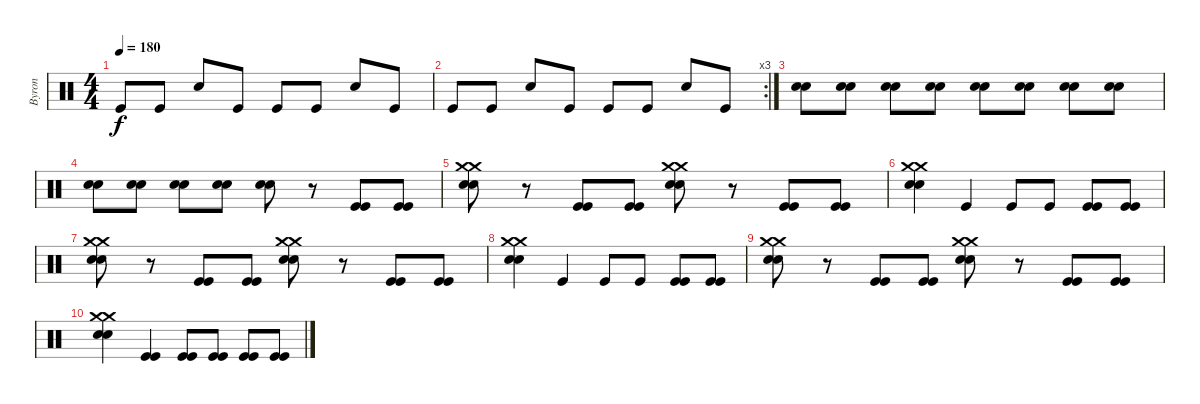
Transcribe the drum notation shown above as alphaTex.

\track ("Byron" "Byron") {instrument percussion}
\staff {score}
\articulation defaults
\ts (4 4)
\tempo 180
\clef neutral
\ks c "Kick (hit)".8{dy f} "Kick (hit)".8 "Snare (hit) 2".8 "Kick (hit)".8 "Kick (hit)".8 "Kick (hit)".8 "Snare (hit) 2".8 "Kick (hit)".8
|
\rc 3 "Kick (hit)".8 "Kick (hit)".8 "Snare (hit) 2".8 "Kick (hit)".8 "Kick (hit)".8 "Kick (hit)".8 "Snare (hit) 2".8 "Kick (hit)".8
|
("Snare (hit) 2" "Snare (hit) 2").8 ("Snare (hit) 2" "Snare (hit) 2").8 ("Snare (hit) 2" "Snare (hit) 2").8 ("Snare (hit) 2" "Snare (hit) 2").8 ("Snare (hit) 2" "Snare (hit) 2").8 ("Snare (hit) 2" "Snare (hit) 2").8 ("Snare (hit) 2" "Snare (hit) 2").8 ("Snare (hit) 2" "Snare (hit) 2").8 |
("Snare (hit) 2" "Snare (hit) 2").8 ("Snare (hit) 2" "Snare (hit) 2").8 ("Snare (hit) 2" "Snare (hit) 2").8 ("Snare (hit) 2" "Snare (hit) 2").8 ("Snare (hit) 2" "Snare (hit) 2").8 r.8 ("Kick (hit)" "Kick (hit)").8 ("Kick (hit)" "Kick (hit)").8 |
("Snare (hit) 2" "Crash medium (hit)" "Snare (hit) 2" "Crash medium (hit)").8 r.8 ("Kick (hit)" "Kick (hit)").8 ("Kick (hit)" "Kick (hit)").8 ("Snare (hit) 2" "Snare (hit) 2" "Crash medium (hit)" "Crash medium (hit)").8 r.8 ("Kick (hit)" "Kick (hit)").8 ("Kick (hit)" "Kick (hit)").8 |
("Snare (hit) 2" "Snare (hit) 2" "Crash medium (hit)" "Crash medium (hit)").4 "Kick (hit)".4 "Kick (hit)".8 "Kick (hit)".8 ("Kick (hit)" "Kick (hit)").8 ("Kick (hit)" "Kick (hit)").8 |
("Snare (hit) 2" "Snare (hit) 2" "Crash medium (hit)" "Crash medium (hit)").8 r.8 ("Kick (hit)" "Kick (hit)").8 ("Kick (hit)" "Kick (hit)").8 ("Snare (hit) 2" "Snare (hit) 2" "Crash medium (hit)" "Crash medium (hit)").8 r.8 ("Kick (hit)" "Kick (hit)").8 ("Kick (hit)" "Kick (hit)").8 |
("Snare (hit) 2" "Snare (hit) 2" "Crash medium (hit)" "Crash medium (hit)").4 "Kick (hit)".4 "Kick (hit)".8 "Kick (hit)".8 ("Kick (hit)" "Kick (hit)").8 ("Kick (hit)" "Kick (hit)").8 |
("Snare (hit) 2" "Snare (hit) 2" "Crash medium (hit)" "Crash medium (hit)").8 r.8 ("Kick (hit)" "Kick (hit)").8 ("Kick (hit)" "Kick (hit)").8 ("Crash medium (hit)" "Crash medium (hit)" "Snare (hit) 2" "Snare (hit) 2").8 r.8 ("Kick (hit)" "Kick (hit)").8 ("Kick (hit)" "Kick (hit)").8 |
("Crash medium (hit)" "Crash medium (hit)" "Snare (hit) 2" "Snare (hit) 2").4 ("Kick (hit)" "Kick (hit)").4 ("Kick (hit)" "Kick (hit)").8 ("Kick (hit)" "Kick (hit)").8 ("Kick (hit)" "Kick (hit)").8 ("Kick (hit)" "Kick (hit)").8
